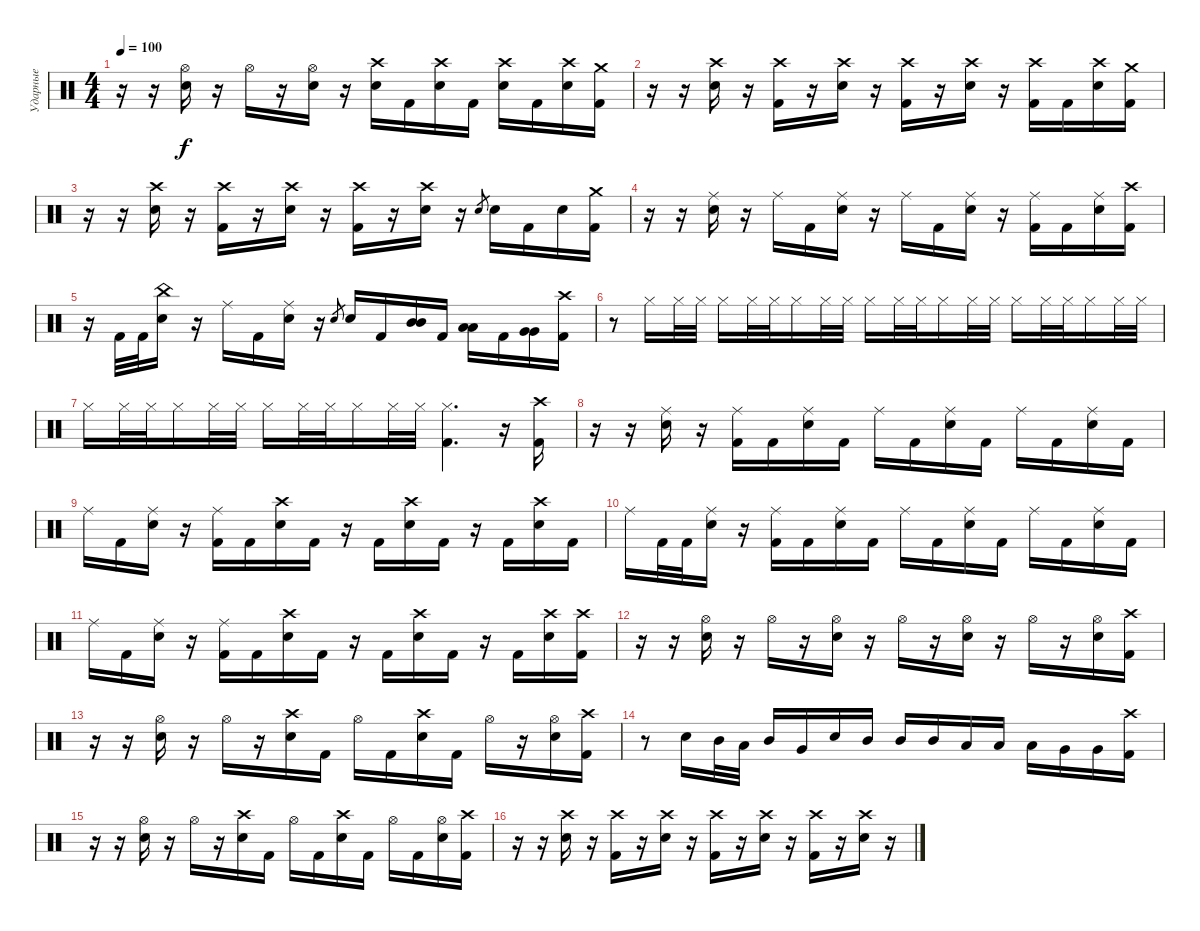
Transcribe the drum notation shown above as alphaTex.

\track ("Ударные" "Ударные") {instrument percussion}
\staff {score}
\articulation defaults
\ts (4 4)
\tempo 100
\clef neutral
\ks c
r.16{dy f} r.16 ("Hi-Hat (open)" "Electric Snare (hit)").16 r.16 "Hi-Hat (open)".16 r.16 ("Hi-Hat (open)" "Electric Snare (hit)").16 r.16 ("Crash high (hit)" "Electric Snare (hit)").16 "Kick (hit) 2".16 ("Crash high (hit)" "Electric Snare (hit)").16 "Kick (hit) 2".16 ("Crash high (hit)" "Electric Snare (hit)").16 "Kick (hit) 2".16 ("Crash high (hit)" "Electric Snare (hit)").16 ("Crash medium (hit)" "Kick (hit) 2").16 |
r.16 r.16 ("Crash high (hit)" "Electric Snare (hit)").16 r.16 ("Crash high (hit)" "Kick (hit) 2").16 r.16 ("Crash high (hit)" "Electric Snare (hit)").16 r.16 ("Crash high (hit)" "Kick (hit) 2").16 r.16 ("Crash high (hit)" "Electric Snare (hit)").16 r.16 ("Crash high (hit)" "Kick (hit) 2").16 "Kick (hit) 2".16 ("Crash high (hit)" "Electric Snare (hit)").16 ("Crash medium (hit)" "Kick (hit) 2").16 |
r.16 r.16 ("Crash high (hit)" "Electric Snare (hit)").16 r.16 ("Crash high (hit)" "Kick (hit) 2").16 r.16 ("Crash high (hit)" "Electric Snare (hit)").16 r.16 ("Crash high (hit)" "Kick (hit) 2").16 r.16 ("Crash high (hit)" "Electric Snare (hit)").16 r.16 "Electric Snare (hit)".8{gr} "Electric Snare (hit)".16 "Kick (hit) 2".16 "Electric Snare (hit)".16 ("Crash medium (hit)" "Kick (hit) 2").16 |
r.16 r.16 ("Ride (middle)" "Electric Snare (hit)").16 r.16 "Ride (middle)".16 "Kick (hit) 2".16 ("Ride (middle)" "Electric Snare (hit)").16 r.16 "Ride (middle)".16 "Kick (hit) 2".16 ("Ride (middle)" "Electric Snare (hit)").16 r.16 ("Ride (middle)" "Kick (hit) 2").16 "Kick (hit) 2".16 ("Ride (middle)" "Electric Snare (hit)").16 ("Crash high (hit)" "Kick (hit) 2").16 |
r.16 "Kick (hit) 2".32 "Kick (hit) 2".32 ("China (hit)" "Electric Snare (hit)").16 r.16 "Ride (middle)".16 "Kick (hit) 2".16 ("Ride (middle)" "Electric Snare (hit)").16 r.16 "Electric Snare (hit)".8{gr} "Electric Snare (hit)".16 "Kick (hit) 2".16 ("Mid Tom (hit)" "Mid Tom (hit)").16 "Kick (hit) 2".16 ("Low Tom (hit)" "Low Tom (hit)").16 "Kick (hit) 2".16 ("Very Low Tom (hit)" "Very Low Tom (hit)").16 ("Crash high (hit)" "Kick (hit) 2").16 |
r.8 "Hi-Hat (closed)".16 "Hi-Hat (closed)".32 "Hi-Hat (closed)".32 "Hi-Hat (closed)".16 "Hi-Hat (closed)".32 "Hi-Hat (closed)".32 "Hi-Hat (closed)".16 "Hi-Hat (closed)".32 "Hi-Hat (closed)".32 "Hi-Hat (closed)".16 "Hi-Hat (closed)".32 "Hi-Hat (closed)".32 "Hi-Hat (closed)".16 "Hi-Hat (closed)".32 "Hi-Hat (closed)".32 "Hi-Hat (closed)".16 "Hi-Hat (closed)".32 "Hi-Hat (closed)".32 "Hi-Hat (closed)".16 "Hi-Hat (closed)".32 "Hi-Hat (closed)".32 |
"Hi-Hat (closed)".16 "Hi-Hat (closed)".32 "Hi-Hat (closed)".32 "Hi-Hat (closed)".16 "Hi-Hat (closed)".32 "Hi-Hat (closed)".32 "Hi-Hat (closed)".16 "Hi-Hat (closed)".32 "Hi-Hat (closed)".32 "Hi-Hat (closed)".16 "Hi-Hat (closed)".32 "Hi-Hat (closed)".32 ("Hi-Hat (closed)" "Kick (hit) 2").4{d} r.16 ("Crash high (hit)" "Kick (hit) 2").16 |
r.16 r.16 ("Ride (middle)" "Electric Snare (hit)").16 r.16 ("Ride (middle)" "Kick (hit) 2").16 "Kick (hit) 2".16 ("Ride (middle)" "Electric Snare (hit)").16 "Kick (hit) 2".16 "Ride (middle)".16 "Kick (hit) 2".16 ("Ride (middle)" "Electric Snare (hit)").16 "Kick (hit) 2".16 "Ride (middle)".16 "Kick (hit) 2".16 ("Ride (middle)" "Electric Snare (hit)").16 "Kick (hit) 2".16 |
"Ride (middle)".16 "Kick (hit) 2".16 ("Ride (middle)" "Electric Snare (hit)").16 r.16 ("Ride (middle)" "Kick (hit) 2").16 "Kick (hit) 2".16 ("Crash high (hit)" "Electric Snare (hit)").16 "Kick (hit) 2".16 r.16 "Kick (hit) 2".16 ("Crash high (hit)" "Electric Snare (hit)").16 "Kick (hit) 2".16 r.16 "Kick (hit) 2".16 ("Crash high (hit)" "Electric Snare (hit)").16 "Kick (hit) 2".16 |
"Ride (middle)".16 "Kick (hit) 2".32 "Kick (hit) 2".32 ("Ride (middle)" "Electric Snare (hit)").16 r.16 ("Ride (middle)" "Kick (hit) 2").16 "Kick (hit) 2".16 ("Ride (middle)" "Electric Snare (hit)").16 "Kick (hit) 2".16 "Ride (middle)".16 "Kick (hit) 2".16 ("Ride (middle)" "Electric Snare (hit)").16 "Kick (hit) 2".16 "Ride (middle)".16 "Kick (hit) 2".16 ("Ride (middle)" "Electric Snare (hit)").16 "Kick (hit) 2".16 |
"Ride (middle)".16 "Kick (hit) 2".16 ("Ride (middle)" "Electric Snare (hit)").16 r.16 ("Ride (middle)" "Kick (hit) 2").16 "Kick (hit) 2".16 ("Crash high (hit)" "Electric Snare (hit)").16 "Kick (hit) 2".16 r.16 "Kick (hit) 2".16 ("Crash high (hit)" "Electric Snare (hit)").16 "Kick (hit) 2".16 r.16 "Kick (hit) 2".16 ("Crash high (hit)" "Electric Snare (hit)").16 ("Crash high (hit)" "Kick (hit) 2").16 |
r.16 r.16 ("Hi-Hat (open)" "Electric Snare (hit)").16 r.16 "Hi-Hat (open)".16 r.16 ("Hi-Hat (open)" "Electric Snare (hit)").16 r.16 "Hi-Hat (open)".16 r.16 ("Hi-Hat (open)" "Electric Snare (hit)").16 r.16 "Hi-Hat (open)".16 r.16 ("Hi-Hat (open)" "Electric Snare (hit)").16 ("Crash high (hit)" "Kick (hit) 2").16 |
r.16 r.16 ("Hi-Hat (open)" "Electric Snare (hit)").16 r.16 "Hi-Hat (open)".16 r.16 ("Crash high (hit)" "Electric Snare (hit)").16 "Kick (hit) 2".16 "Hi-Hat (open)".16 "Kick (hit) 2".16 ("Crash high (hit)" "Electric Snare (hit)").16 "Kick (hit) 2".16 "Hi-Hat (open)".16 r.16 ("Hi-Hat (open)" "Electric Snare (hit)").16 ("Crash high (hit)" "Kick (hit) 2").16 |
r.8 "Electric Snare (hit)".16 "Mid Tom (hit)".32 "Low Tom (hit)".32 "Mid Tom (hit)".16 "Very Low Tom (hit)".16 "Electric Snare (hit)".16 "Mid Tom (hit)".16 "Mid Tom (hit)".16 "Mid Tom (hit)".16 "Low Tom (hit)".16 "Low Tom (hit)".16 "Low Tom (hit)".16 "Very Low Tom (hit)".16 "Very Low Tom (hit)".16 ("Crash high (hit)" "Kick (hit) 2").16 |
r.16 r.16 ("Hi-Hat (open)" "Electric Snare (hit)").16 r.16 "Hi-Hat (open)".16 r.16 ("Crash high (hit)" "Electric Snare (hit)").16 "Kick (hit) 2".16 "Hi-Hat (open)".16 "Kick (hit) 2".16 ("Crash high (hit)" "Electric Snare (hit)").16 "Kick (hit) 2".16 "Hi-Hat (open)".16 "Kick (hit) 2".16 ("Hi-Hat (open)" "Electric Snare (hit)").16 ("Crash high (hit)" "Kick (hit) 2").16 |
r.16 r.16 ("Crash high (hit)" "Electric Snare (hit)").16 r.16 ("Crash high (hit)" "Kick (hit) 2").16 r.16 ("Crash high (hit)" "Electric Snare (hit)").16 r.16 ("Crash high (hit)" "Kick (hit) 2").16 r.16 ("Crash high (hit)" "Electric Snare (hit)").16 r.16 ("Crash high (hit)" "Kick (hit) 2").16 r.16 ("Crash high (hit)" "Electric Snare (hit)").16 r.16
